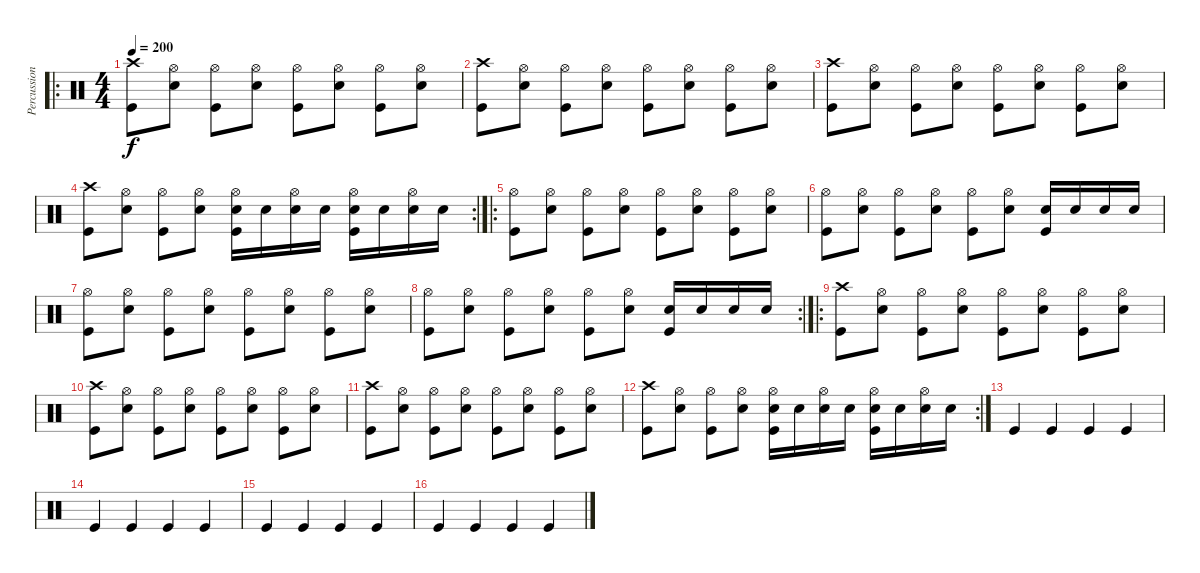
\track ("Percussion" "Percussion") {instrument percussion}
\staff {score}
\articulation defaults
\ro
\ts (4 4)
\tempo 200
\clef neutral
\ks c
("Crash high (hit)" "Kick (hit)").8{dy f} ("Hi-Hat (open)" "Snare (hit) 2").8 ("Hi-Hat (open)" "Kick (hit)").8 ("Hi-Hat (open)" "Snare (hit) 2").8 ("Hi-Hat (open)" "Kick (hit)").8 ("Hi-Hat (open)" "Snare (hit) 2").8 ("Hi-Hat (open)" "Kick (hit)").8 ("Hi-Hat (open)" "Snare (hit) 2").8 |
("Crash high (hit)" "Kick (hit)").8 ("Hi-Hat (open)" "Snare (hit) 2").8 ("Hi-Hat (open)" "Kick (hit)").8 ("Hi-Hat (open)" "Snare (hit) 2").8 ("Hi-Hat (open)" "Kick (hit)").8 ("Hi-Hat (open)" "Snare (hit) 2").8 ("Hi-Hat (open)" "Kick (hit)").8 ("Hi-Hat (open)" "Snare (hit) 2").8 |
("Crash high (hit)" "Kick (hit)").8 ("Hi-Hat (open)" "Snare (hit) 2").8 ("Hi-Hat (open)" "Kick (hit)").8 ("Hi-Hat (open)" "Snare (hit) 2").8 ("Hi-Hat (open)" "Kick (hit)").8 ("Hi-Hat (open)" "Snare (hit) 2").8 ("Hi-Hat (open)" "Kick (hit)").8 ("Hi-Hat (open)" "Snare (hit) 2").8 |
\rc 2
("Crash high (hit)" "Kick (hit)").8 ("Hi-Hat (open)" "Snare (hit) 2").8 ("Hi-Hat (open)" "Kick (hit)").8 ("Hi-Hat (open)" "Snare (hit) 2").8 ("Hi-Hat (open)" "Snare (hit) 2" "Kick (hit)").16 "Snare (hit) 2".16 ("Hi-Hat (open)" "Snare (hit) 2").16 "Snare (hit) 2".16 ("Hi-Hat (open)" "Snare (hit) 2" "Kick (hit)").16 "Snare (hit) 2".16 ("Hi-Hat (open)" "Snare (hit) 2").16 "Snare (hit) 2".16 |
\ro
("Hi-Hat (open)" "Kick (hit)").8 ("Hi-Hat (open)" "Snare (hit) 2").8 ("Hi-Hat (open)" "Kick (hit)").8 ("Hi-Hat (open)" "Snare (hit) 2").8 ("Hi-Hat (open)" "Kick (hit)").8 ("Hi-Hat (open)" "Snare (hit) 2").8 ("Hi-Hat (open)" "Kick (hit)").8 ("Hi-Hat (open)" "Snare (hit) 2").8 |
("Hi-Hat (open)" "Kick (hit)").8 ("Hi-Hat (open)" "Snare (hit) 2").8 ("Hi-Hat (open)" "Kick (hit)").8 ("Hi-Hat (open)" "Snare (hit) 2").8 ("Hi-Hat (open)" "Kick (hit)").8 ("Hi-Hat (open)" "Snare (hit) 2").8 ("Snare (hit) 2" "Kick (hit)").16 "Snare (hit) 2".16 "Snare (hit) 2".16 "Snare (hit) 2".16 |
("Hi-Hat (open)" "Kick (hit)").8 ("Hi-Hat (open)" "Snare (hit) 2").8 ("Hi-Hat (open)" "Kick (hit)").8 ("Hi-Hat (open)" "Snare (hit) 2").8 ("Hi-Hat (open)" "Kick (hit)").8 ("Hi-Hat (open)" "Snare (hit) 2").8 ("Hi-Hat (open)" "Kick (hit)").8 ("Hi-Hat (open)" "Snare (hit) 2").8 |
\rc 2
("Hi-Hat (open)" "Kick (hit)").8 ("Hi-Hat (open)" "Snare (hit) 2").8 ("Hi-Hat (open)" "Kick (hit)").8 ("Hi-Hat (open)" "Snare (hit) 2").8 ("Hi-Hat (open)" "Kick (hit)").8 ("Hi-Hat (open)" "Snare (hit) 2").8 ("Snare (hit) 2" "Kick (hit)").16 "Snare (hit) 2".16 "Snare (hit) 2".16 "Snare (hit) 2".16 |
\ro
("Crash high (hit)" "Kick (hit)").8 ("Hi-Hat (open)" "Snare (hit) 2").8 ("Hi-Hat (open)" "Kick (hit)").8 ("Hi-Hat (open)" "Snare (hit) 2").8 ("Hi-Hat (open)" "Kick (hit)").8 ("Hi-Hat (open)" "Snare (hit) 2").8 ("Hi-Hat (open)" "Kick (hit)").8 ("Hi-Hat (open)" "Snare (hit) 2").8 |
("Crash high (hit)" "Kick (hit)").8 ("Hi-Hat (open)" "Snare (hit) 2").8 ("Hi-Hat (open)" "Kick (hit)").8 ("Hi-Hat (open)" "Snare (hit) 2").8 ("Hi-Hat (open)" "Kick (hit)").8 ("Hi-Hat (open)" "Snare (hit) 2").8 ("Hi-Hat (open)" "Kick (hit)").8 ("Hi-Hat (open)" "Snare (hit) 2").8 |
("Crash high (hit)" "Kick (hit)").8 ("Hi-Hat (open)" "Snare (hit) 2").8 ("Hi-Hat (open)" "Kick (hit)").8 ("Hi-Hat (open)" "Snare (hit) 2").8 ("Hi-Hat (open)" "Kick (hit)").8 ("Hi-Hat (open)" "Snare (hit) 2").8 ("Hi-Hat (open)" "Kick (hit)").8 ("Hi-Hat (open)" "Snare (hit) 2").8 |
\rc 2
("Crash high (hit)" "Kick (hit)").8 ("Hi-Hat (open)" "Snare (hit) 2").8 ("Hi-Hat (open)" "Kick (hit)").8 ("Hi-Hat (open)" "Snare (hit) 2").8 ("Hi-Hat (open)" "Snare (hit) 2" "Kick (hit)").16 "Snare (hit) 2".16 ("Hi-Hat (open)" "Snare (hit) 2").16 "Snare (hit) 2".16 ("Hi-Hat (open)" "Snare (hit) 2" "Kick (hit)").16 "Snare (hit) 2".16 ("Hi-Hat (open)" "Snare (hit) 2").16 "Snare (hit) 2".16 |
"Kick (hit)".4 "Kick (hit)".4 "Kick (hit)".4 "Kick (hit)".4 |
"Kick (hit)".4 "Kick (hit)".4 "Kick (hit)".4 "Kick (hit)".4 |
"Kick (hit)".4 "Kick (hit)".4 "Kick (hit)".4 "Kick (hit)".4 |
"Kick (hit)".4 "Kick (hit)".4 "Kick (hit)".4 "Kick (hit)".4
